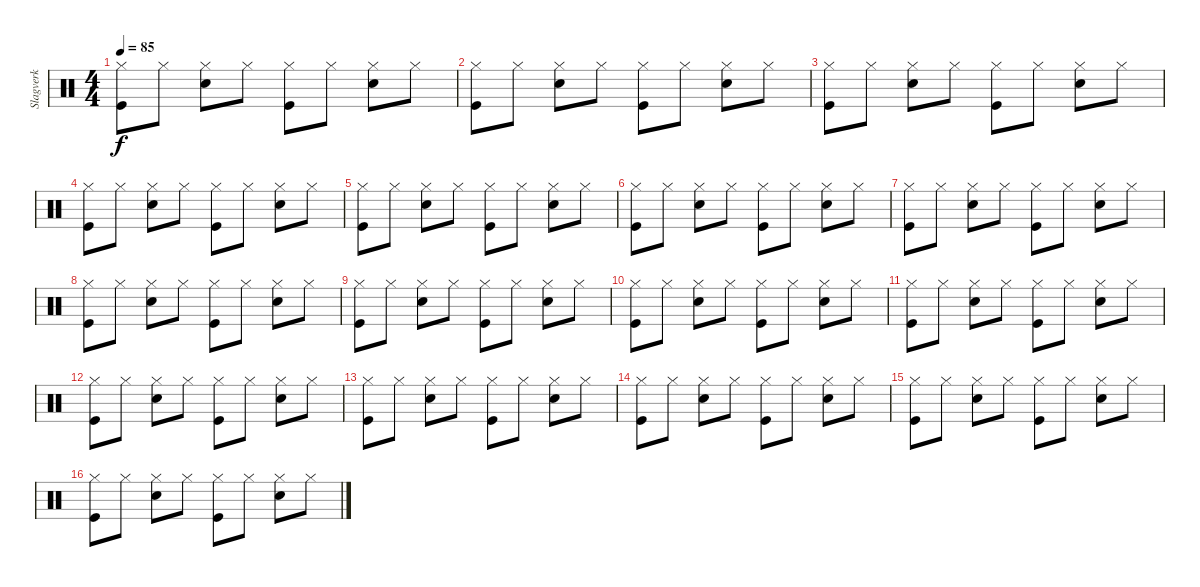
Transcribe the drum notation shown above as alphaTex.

\track ("Slagverk" "Slagverk") {instrument percussion}
\staff {score}
\articulation defaults
\ts (4 4)
\tempo 85
\clef neutral
\ks c
("Hi-Hat (closed)" "Kick (hit)").8{dy f} "Hi-Hat (closed)".8 ("Hi-Hat (closed)" "Electric Snare (hit)").8 "Hi-Hat (closed)".8 ("Hi-Hat (closed)" "Kick (hit)").8 "Hi-Hat (closed)".8 ("Hi-Hat (closed)" "Electric Snare (hit)").8 "Hi-Hat (closed)".8 |
("Hi-Hat (closed)" "Kick (hit)").8 "Hi-Hat (closed)".8 ("Hi-Hat (closed)" "Electric Snare (hit)").8 "Hi-Hat (closed)".8 ("Hi-Hat (closed)" "Kick (hit)").8 "Hi-Hat (closed)".8 ("Hi-Hat (closed)" "Electric Snare (hit)").8 "Hi-Hat (closed)".8 |
("Hi-Hat (closed)" "Kick (hit)").8 "Hi-Hat (closed)".8 ("Hi-Hat (closed)" "Electric Snare (hit)").8 "Hi-Hat (closed)".8 ("Hi-Hat (closed)" "Kick (hit)").8 "Hi-Hat (closed)".8 ("Hi-Hat (closed)" "Electric Snare (hit)").8 "Hi-Hat (closed)".8 |
("Hi-Hat (closed)" "Kick (hit)").8 "Hi-Hat (closed)".8 ("Hi-Hat (closed)" "Electric Snare (hit)").8 "Hi-Hat (closed)".8 ("Hi-Hat (closed)" "Kick (hit)").8 "Hi-Hat (closed)".8 ("Hi-Hat (closed)" "Electric Snare (hit)").8 "Hi-Hat (closed)".8 |
("Hi-Hat (closed)" "Kick (hit)").8 "Hi-Hat (closed)".8 ("Hi-Hat (closed)" "Electric Snare (hit)").8 "Hi-Hat (closed)".8 ("Hi-Hat (closed)" "Kick (hit)").8 "Hi-Hat (closed)".8 ("Hi-Hat (closed)" "Electric Snare (hit)").8 "Hi-Hat (closed)".8 |
("Hi-Hat (closed)" "Kick (hit)").8 "Hi-Hat (closed)".8 ("Hi-Hat (closed)" "Electric Snare (hit)").8 "Hi-Hat (closed)".8 ("Hi-Hat (closed)" "Kick (hit)").8 "Hi-Hat (closed)".8 ("Hi-Hat (closed)" "Electric Snare (hit)").8 "Hi-Hat (closed)".8 |
("Hi-Hat (closed)" "Kick (hit)").8 "Hi-Hat (closed)".8 ("Hi-Hat (closed)" "Electric Snare (hit)").8 "Hi-Hat (closed)".8 ("Hi-Hat (closed)" "Kick (hit)").8 "Hi-Hat (closed)".8 ("Hi-Hat (closed)" "Electric Snare (hit)").8 "Hi-Hat (closed)".8 |
("Hi-Hat (closed)" "Kick (hit)").8 "Hi-Hat (closed)".8 ("Hi-Hat (closed)" "Electric Snare (hit)").8 "Hi-Hat (closed)".8 ("Hi-Hat (closed)" "Kick (hit)").8 "Hi-Hat (closed)".8 ("Hi-Hat (closed)" "Electric Snare (hit)").8 "Hi-Hat (closed)".8 |
("Hi-Hat (closed)" "Kick (hit)").8 "Hi-Hat (closed)".8 ("Hi-Hat (closed)" "Electric Snare (hit)").8 "Hi-Hat (closed)".8 ("Hi-Hat (closed)" "Kick (hit)").8 "Hi-Hat (closed)".8 ("Hi-Hat (closed)" "Electric Snare (hit)").8 "Hi-Hat (closed)".8 |
("Hi-Hat (closed)" "Kick (hit)").8 "Hi-Hat (closed)".8 ("Hi-Hat (closed)" "Electric Snare (hit)").8 "Hi-Hat (closed)".8 ("Hi-Hat (closed)" "Kick (hit)").8 "Hi-Hat (closed)".8 ("Hi-Hat (closed)" "Electric Snare (hit)").8 "Hi-Hat (closed)".8 |
("Hi-Hat (closed)" "Kick (hit)").8 "Hi-Hat (closed)".8 ("Hi-Hat (closed)" "Electric Snare (hit)").8 "Hi-Hat (closed)".8 ("Hi-Hat (closed)" "Kick (hit)").8 "Hi-Hat (closed)".8 ("Hi-Hat (closed)" "Electric Snare (hit)").8 "Hi-Hat (closed)".8 |
("Hi-Hat (closed)" "Kick (hit)").8 "Hi-Hat (closed)".8 ("Hi-Hat (closed)" "Electric Snare (hit)").8 "Hi-Hat (closed)".8 ("Hi-Hat (closed)" "Kick (hit)").8 "Hi-Hat (closed)".8 ("Hi-Hat (closed)" "Electric Snare (hit)").8 "Hi-Hat (closed)".8 |
("Hi-Hat (closed)" "Kick (hit)").8 "Hi-Hat (closed)".8 ("Hi-Hat (closed)" "Electric Snare (hit)").8 "Hi-Hat (closed)".8 ("Hi-Hat (closed)" "Kick (hit)").8 "Hi-Hat (closed)".8 ("Hi-Hat (closed)" "Electric Snare (hit)").8 "Hi-Hat (closed)".8 |
("Hi-Hat (closed)" "Kick (hit)").8 "Hi-Hat (closed)".8 ("Hi-Hat (closed)" "Electric Snare (hit)").8 "Hi-Hat (closed)".8 ("Hi-Hat (closed)" "Kick (hit)").8 "Hi-Hat (closed)".8 ("Hi-Hat (closed)" "Electric Snare (hit)").8 "Hi-Hat (closed)".8 |
("Hi-Hat (closed)" "Kick (hit)").8 "Hi-Hat (closed)".8 ("Hi-Hat (closed)" "Electric Snare (hit)").8 "Hi-Hat (closed)".8 ("Hi-Hat (closed)" "Kick (hit)").8 "Hi-Hat (closed)".8 ("Hi-Hat (closed)" "Electric Snare (hit)").8 "Hi-Hat (closed)".8 |
("Hi-Hat (closed)" "Kick (hit)").8 "Hi-Hat (closed)".8 ("Hi-Hat (closed)" "Electric Snare (hit)").8 "Hi-Hat (closed)".8 ("Hi-Hat (closed)" "Kick (hit)").8 "Hi-Hat (closed)".8 ("Hi-Hat (closed)" "Electric Snare (hit)").8 "Hi-Hat (closed)".8
